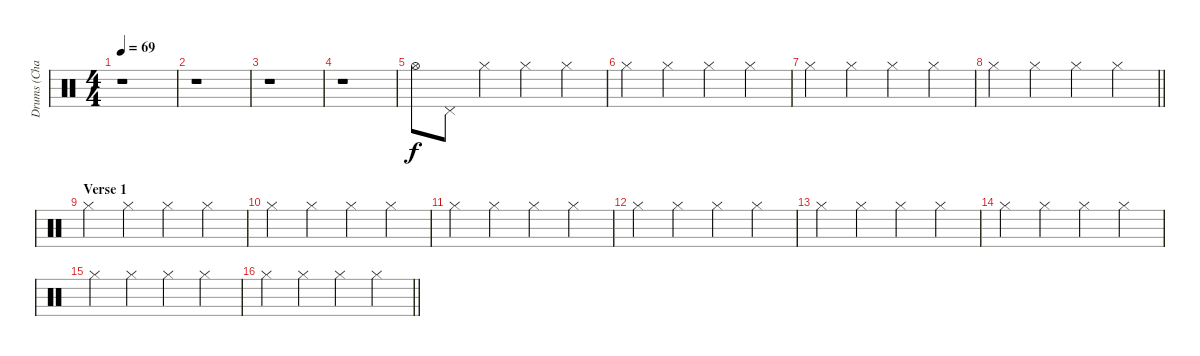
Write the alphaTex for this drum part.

\track ("Drums (Charlie)" "Drums (Cha") {instrument percussion}
\staff {score}
\articulation defaults
\ts (4 4)
\tempo 69
\clef neutral
\ks c
r.1{dy f} |
r.1 |
r.1 |
r.1 |
"Hi-Hat (open)".8 "Pedal Hi-Hat (hit)".8 "Hi-Hat (closed)".4 "Hi-Hat (closed)".4 "Hi-Hat (closed)".4 |
"Hi-Hat (closed)".4 "Hi-Hat (closed)".4 "Hi-Hat (closed)".4 "Hi-Hat (closed)".4 |
"Hi-Hat (closed)".4 "Hi-Hat (closed)".4 "Hi-Hat (closed)".4 "Hi-Hat (closed)".4 |
\barLineRight lightlight "Hi-Hat (closed)".4 "Hi-Hat (closed)".4 "Hi-Hat (closed)".4 "Hi-Hat (closed)".4
|
\section ("" "Verse 1")
"Hi-Hat (closed)".4 "Hi-Hat (closed)".4 "Hi-Hat (closed)".4 "Hi-Hat (closed)".4 |
"Hi-Hat (closed)".4 "Hi-Hat (closed)".4 "Hi-Hat (closed)".4 "Hi-Hat (closed)".4 |
"Hi-Hat (closed)".4 "Hi-Hat (closed)".4 "Hi-Hat (closed)".4 "Hi-Hat (closed)".4 |
"Hi-Hat (closed)".4 "Hi-Hat (closed)".4 "Hi-Hat (closed)".4 "Hi-Hat (closed)".4 |
"Hi-Hat (closed)".4 "Hi-Hat (closed)".4 "Hi-Hat (closed)".4 "Hi-Hat (closed)".4 |
"Hi-Hat (closed)".4 "Hi-Hat (closed)".4 "Hi-Hat (closed)".4 "Hi-Hat (closed)".4 |
"Hi-Hat (closed)".4 "Hi-Hat (closed)".4 "Hi-Hat (closed)".4 "Hi-Hat (closed)".4 |
\barLineRight lightlight "Hi-Hat (closed)".4 "Hi-Hat (closed)".4 "Hi-Hat (closed)".4 "Hi-Hat (closed)".4
